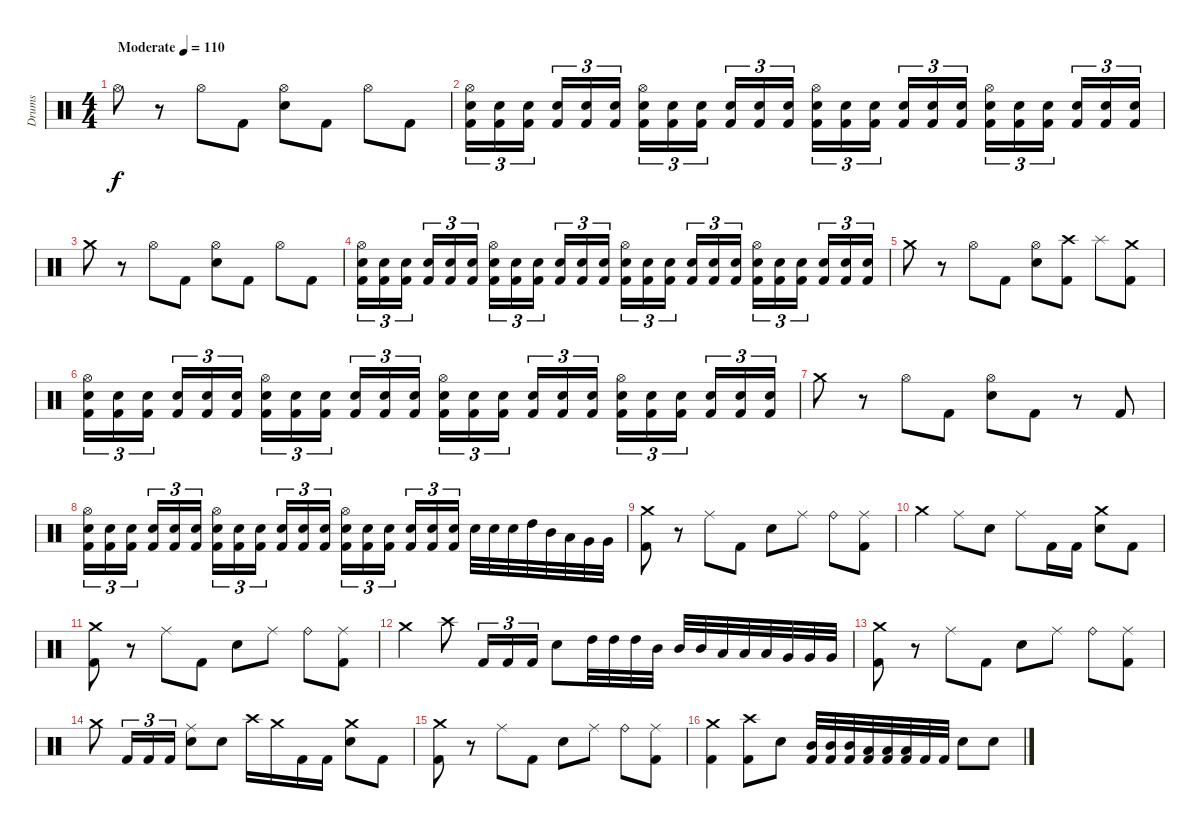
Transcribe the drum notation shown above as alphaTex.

\track ("Drums" "Drums") {instrument percussion}
\staff {score}
\articulation defaults
\ts (4 4)
\tempo (110 "Moderate")
\clef neutral
\ks c "Hi-Hat (open)".8{dy f}
r.8 "Hi-Hat (open)".8 "Kick (hit) 2".8 ("Hi-Hat (open)" "Electric Snare (hit)").8 "Kick (hit) 2".8 "Hi-Hat (open)".8 "Kick (hit) 2".8 |
("Hi-Hat (open)" "Electric Snare (hit)" "Kick (hit) 2").16{tu (3 2)} ("Electric Snare (hit)" "Kick (hit) 2").16{tu (3 2)} ("Electric Snare (hit)" "Kick (hit) 2").16{tu (3 2) beam splitsecondary} ("Electric Snare (hit)" "Kick (hit) 2").16{tu (3 2)} ("Electric Snare (hit)" "Kick (hit) 2").16{tu (3 2)} ("Electric Snare (hit)" "Kick (hit) 2").16{tu (3 2)} ("Hi-Hat (open)" "Electric Snare (hit)" "Kick (hit) 2").16{tu (3 2)} ("Electric Snare (hit)" "Kick (hit) 2").16{tu (3 2)} ("Electric Snare (hit)" "Kick (hit) 2").16{tu (3 2) beam splitsecondary} ("Electric Snare (hit)" "Kick (hit) 2").16{tu (3 2)} ("Electric Snare (hit)" "Kick (hit) 2").16{tu (3 2)} ("Electric Snare (hit)" "Kick (hit) 2").16{tu (3 2)} ("Hi-Hat (open)" "Electric Snare (hit)" "Kick (hit) 2").16{tu (3 2)} ("Electric Snare (hit)" "Kick (hit) 2").16{tu (3 2)} ("Electric Snare (hit)" "Kick (hit) 2").16{tu (3 2) beam splitsecondary} ("Electric Snare (hit)" "Kick (hit) 2").16{tu (3 2)} ("Electric Snare (hit)" "Kick (hit) 2").16{tu (3 2)} ("Electric Snare (hit)" "Kick (hit) 2").16{tu (3 2)} ("Hi-Hat (open)" "Electric Snare (hit)" "Kick (hit) 2").16{tu (3 2)} ("Electric Snare (hit)" "Kick (hit) 2").16{tu (3 2)} ("Electric Snare (hit)" "Kick (hit) 2").16{tu (3 2) beam splitsecondary} ("Electric Snare (hit)" "Kick (hit) 2").16{tu (3 2)} ("Electric Snare (hit)" "Kick (hit) 2").16{tu (3 2)} ("Electric Snare (hit)" "Kick (hit) 2").16{tu (3 2)} |
"Crash medium (hit)".8 r.8 "Hi-Hat (open)".8 "Kick (hit) 2".8 ("Hi-Hat (open)" "Electric Snare (hit)").8 "Kick (hit) 2".8 "Hi-Hat (open)".8 "Kick (hit) 2".8 |
("Hi-Hat (open)" "Electric Snare (hit)" "Kick (hit) 2").16{tu (3 2)} ("Electric Snare (hit)" "Kick (hit) 2").16{tu (3 2)} ("Electric Snare (hit)" "Kick (hit) 2").16{tu (3 2) beam splitsecondary} ("Electric Snare (hit)" "Kick (hit) 2").16{tu (3 2)} ("Electric Snare (hit)" "Kick (hit) 2").16{tu (3 2)} ("Electric Snare (hit)" "Kick (hit) 2").16{tu (3 2)} ("Hi-Hat (open)" "Electric Snare (hit)" "Kick (hit) 2").16{tu (3 2)} ("Electric Snare (hit)" "Kick (hit) 2").16{tu (3 2)} ("Electric Snare (hit)" "Kick (hit) 2").16{tu (3 2) beam splitsecondary} ("Electric Snare (hit)" "Kick (hit) 2").16{tu (3 2)} ("Electric Snare (hit)" "Kick (hit) 2").16{tu (3 2)} ("Electric Snare (hit)" "Kick (hit) 2").16{tu (3 2)} ("Hi-Hat (open)" "Electric Snare (hit)" "Kick (hit) 2").16{tu (3 2)} ("Electric Snare (hit)" "Kick (hit) 2").16{tu (3 2)} ("Electric Snare (hit)" "Kick (hit) 2").16{tu (3 2) beam splitsecondary} ("Electric Snare (hit)" "Kick (hit) 2").16{tu (3 2)} ("Electric Snare (hit)" "Kick (hit) 2").16{tu (3 2)} ("Electric Snare (hit)" "Kick (hit) 2").16{tu (3 2)} ("Hi-Hat (open)" "Electric Snare (hit)" "Kick (hit) 2").16{tu (3 2)} ("Electric Snare (hit)" "Kick (hit) 2").16{tu (3 2)} ("Electric Snare (hit)" "Kick (hit) 2").16{tu (3 2) beam splitsecondary} ("Electric Snare (hit)" "Kick (hit) 2").16{tu (3 2)} ("Electric Snare (hit)" "Kick (hit) 2").16{tu (3 2)} ("Electric Snare (hit)" "Kick (hit) 2").16{tu (3 2)} |
"Crash medium (hit)".8 r.8 "Hi-Hat (open)".8 "Kick (hit) 2".8 ("Hi-Hat (open)" "Electric Snare (hit)").8 ("Crash high (hit)" "Kick (hit) 2").8 "Splash (hit)".8 ("Crash medium (hit)" "Kick (hit) 2").8 |
("Hi-Hat (open)" "Electric Snare (hit)" "Kick (hit) 2").16{tu (3 2)} ("Electric Snare (hit)" "Kick (hit) 2").16{tu (3 2)} ("Electric Snare (hit)" "Kick (hit) 2").16{tu (3 2) beam splitsecondary} ("Electric Snare (hit)" "Kick (hit) 2").16{tu (3 2)} ("Electric Snare (hit)" "Kick (hit) 2").16{tu (3 2)} ("Electric Snare (hit)" "Kick (hit) 2").16{tu (3 2)} ("Hi-Hat (open)" "Electric Snare (hit)" "Kick (hit) 2").16{tu (3 2)} ("Electric Snare (hit)" "Kick (hit) 2").16{tu (3 2)} ("Electric Snare (hit)" "Kick (hit) 2").16{tu (3 2) beam splitsecondary} ("Electric Snare (hit)" "Kick (hit) 2").16{tu (3 2)} ("Electric Snare (hit)" "Kick (hit) 2").16{tu (3 2)} ("Electric Snare (hit)" "Kick (hit) 2").16{tu (3 2)} ("Hi-Hat (open)" "Electric Snare (hit)" "Kick (hit) 2").16{tu (3 2)} ("Electric Snare (hit)" "Kick (hit) 2").16{tu (3 2)} ("Electric Snare (hit)" "Kick (hit) 2").16{tu (3 2) beam splitsecondary} ("Electric Snare (hit)" "Kick (hit) 2").16{tu (3 2)} ("Electric Snare (hit)" "Kick (hit) 2").16{tu (3 2)} ("Electric Snare (hit)" "Kick (hit) 2").16{tu (3 2)} ("Hi-Hat (open)" "Electric Snare (hit)" "Kick (hit) 2").16{tu (3 2)} ("Electric Snare (hit)" "Kick (hit) 2").16{tu (3 2)} ("Electric Snare (hit)" "Kick (hit) 2").16{tu (3 2) beam splitsecondary} ("Electric Snare (hit)" "Kick (hit) 2").16{tu (3 2)} ("Electric Snare (hit)" "Kick (hit) 2").16{tu (3 2)} ("Electric Snare (hit)" "Kick (hit) 2").16{tu (3 2)} |
"Crash medium (hit)".8 r.8 "Hi-Hat (open)".8 "Kick (hit) 2".8 ("Hi-Hat (open)" "Electric Snare (hit)").8 "Kick (hit) 2".8 r.8 "Kick (hit) 2".8 |
("Hi-Hat (open)" "Electric Snare (hit)" "Kick (hit) 2").16{tu (3 2)} ("Electric Snare (hit)" "Kick (hit) 2").16{tu (3 2)} ("Electric Snare (hit)" "Kick (hit) 2").16{tu (3 2) beam splitsecondary} ("Electric Snare (hit)" "Kick (hit) 2").16{tu (3 2)} ("Electric Snare (hit)" "Kick (hit) 2").16{tu (3 2)} ("Electric Snare (hit)" "Kick (hit) 2").16{tu (3 2)} ("Hi-Hat (open)" "Electric Snare (hit)" "Kick (hit) 2").16{tu (3 2)} ("Electric Snare (hit)" "Kick (hit) 2").16{tu (3 2)} ("Electric Snare (hit)" "Kick (hit) 2").16{tu (3 2) beam splitsecondary} ("Electric Snare (hit)" "Kick (hit) 2").16{tu (3 2)} ("Electric Snare (hit)" "Kick (hit) 2").16{tu (3 2)} ("Electric Snare (hit)" "Kick (hit) 2").16{tu (3 2)} ("Hi-Hat (open)" "Electric Snare (hit)" "Kick (hit) 2").16{tu (3 2)} ("Electric Snare (hit)" "Kick (hit) 2").16{tu (3 2)} ("Electric Snare (hit)" "Kick (hit) 2").16{tu (3 2) beam splitsecondary} ("Electric Snare (hit)" "Kick (hit) 2").16{tu (3 2)} ("Electric Snare (hit)" "Kick (hit) 2").16{tu (3 2)} ("Electric Snare (hit)" "Kick (hit) 2").16{tu (3 2)} "Electric Snare (hit)".32 "Electric Snare (hit)".32 "Electric Snare (hit)".32 "High Tom (hit)".32 "Mid Tom (hit)".32 "Low Tom (hit)".32 "Very Low Tom (hit)".32 "Very Low Tom (hit)".32 |
("Crash medium (hit)" "Kick (hit) 2").8 r.8 "Ride (middle)".8 "Kick (hit) 2".8 "Electric Snare (hit)".8 "Ride (middle)".8 "Ride (bell)".8 ("Ride (middle)" "Kick (hit) 2").8 |
"Crash medium (hit)".4 "Ride (middle)".8 "Electric Snare (hit)".8 "Ride (middle)".8 "Kick (hit) 2".16 "Kick (hit) 2".16 ("Crash medium (hit)" "Electric Snare (hit)").8 "Kick (hit) 2".8 |
("Crash medium (hit)" "Kick (hit) 2").8 r.8 "Ride (middle)".8 "Kick (hit) 2".8 "Electric Snare (hit)".8 "Ride (middle)".8 "Ride (bell)".8 ("Ride (middle)" "Kick (hit) 2").8 |
"Crash medium (hit)".4 "Crash high (hit)".8 "Kick (hit) 2".16{tu (3 2)} "Kick (hit) 2".16{tu (3 2)} "Kick (hit) 2".16{tu (3 2)} "Electric Snare (hit)".8 "High Tom (hit)".32 "High Tom (hit)".32 "High Tom (hit)".32 "Mid Tom (hit)".32 "Mid Tom (hit)".32 "Mid Tom (hit)".32 "Low Tom (hit)".32 "Low Tom (hit)".32 "Low Tom (hit)".32 "Very Low Tom (hit)".32 "Very Low Tom (hit)".32 "Very Low Tom (hit)".32 |
("Crash medium (hit)" "Kick (hit) 2").8 r.8 "Ride (middle)".8 "Kick (hit) 2".8 "Electric Snare (hit)".8 "Ride (middle)".8 "Ride (bell)".8 ("Ride (middle)" "Kick (hit) 2").8 |
"Crash medium (hit)".8 "Kick (hit) 2".16{tu (3 2)} "Kick (hit) 2".16{tu (3 2)} "Kick (hit) 2".16{tu (3 2)} ("Ride (middle)" "Electric Snare (hit)").8 "Electric Snare (hit)".8 "Crash high (hit)".16 "Crash medium (hit)".16 "Kick (hit) 2".16 "Kick (hit) 2".16 ("Crash medium (hit)" "Electric Snare (hit)").8 "Kick (hit) 2".8 |
("Crash medium (hit)" "Kick (hit) 2").8 r.8 "Ride (middle)".8 "Kick (hit) 2".8 "Electric Snare (hit)".8 "Ride (middle)".8 "Ride (bell)".8 ("Ride (middle)" "Kick (hit) 2").8 |
("Crash medium (hit)" "Kick (hit) 2").4 ("Crash high (hit)" "Kick (hit) 2").8 "Electric Snare (hit)".8 ("Mid Tom (hit)" "Kick (hit) 2").32 ("Mid Tom (hit)" "Kick (hit) 2").32 ("Mid Tom (hit)" "Kick (hit) 2").32 ("Low Tom (hit)" "Kick (hit) 2").32 ("Low Tom (hit)" "Kick (hit) 2").32 ("Low Tom (hit)" "Kick (hit) 2").32 "Kick (hit) 2".32 "Kick (hit) 2".32 "Electric Snare (hit)".8 "Electric Snare (hit)".8
